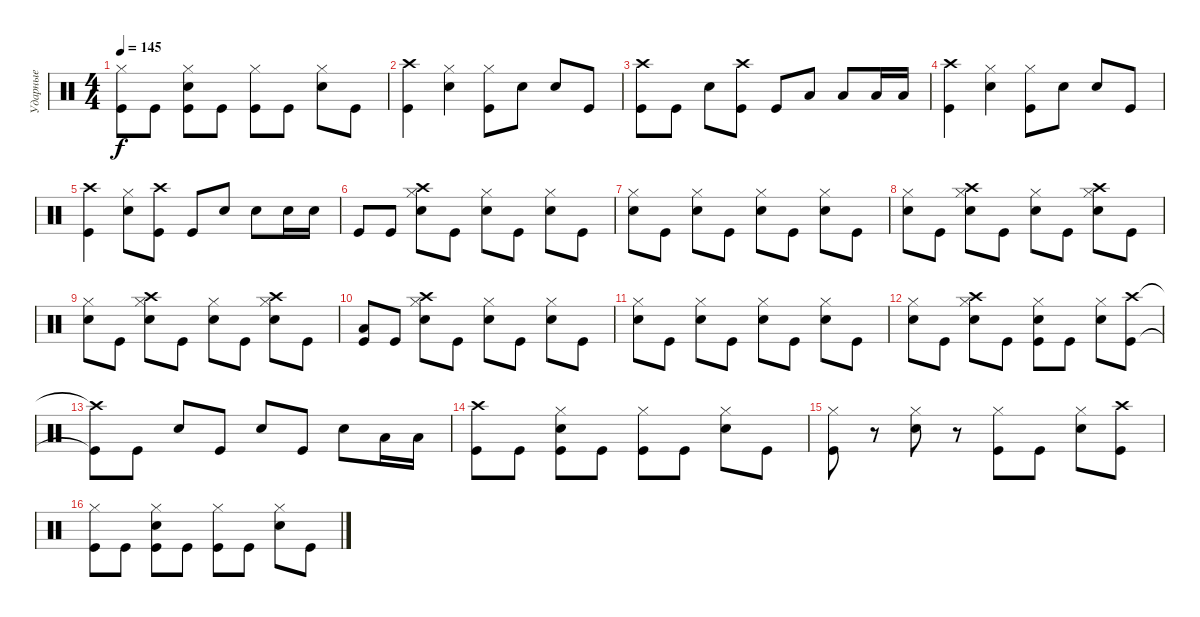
\track ("Ударные" "Ударные") {instrument percussion}
\staff {score}
\articulation defaults
\ts (4 4)
\tempo 145
\clef neutral
\ks c
("Hi-Hat (closed)" "Kick (hit)").8{dy f} "Kick (hit)".8 ("Hi-Hat (closed)" "Electric Snare (hit)" "Kick (hit)").8 "Kick (hit)".8 ("Hi-Hat (closed)" "Kick (hit)").8 "Kick (hit)".8 ("Hi-Hat (closed)" "Electric Snare (hit)").8 "Kick (hit)".8 |
("Crash high (hit)" "Kick (hit)").4 ("Hi-Hat (closed)" "Electric Snare (hit)").4 ("Hi-Hat (closed)" "Kick (hit)").8 "Electric Snare (hit)".8 "Electric Snare (hit)".8 "Kick (hit)".8 |
("Crash high (hit)" "Kick (hit)").8 "Kick (hit)".8 "Electric Snare (hit)".8 ("Crash high (hit)" "Kick (hit)").8 "Kick (hit)".8 "Low Tom (hit)".8 "Low Tom (hit)".8 "Low Tom (hit)".16 "Low Tom (hit)".16 |
("Crash high (hit)" "Kick (hit)").4 ("Hi-Hat (closed)" "Electric Snare (hit)").4 ("Hi-Hat (closed)" "Kick (hit)").8 "Electric Snare (hit)".8 "Electric Snare (hit)".8 "Kick (hit)".8 |
("Crash high (hit)" "Kick (hit)").4 ("Hi-Hat (closed)" "Electric Snare (hit)").8 ("Crash high (hit)" "Kick (hit)").8 "Kick (hit)".8 "Electric Snare (hit)".8 "Electric Snare (hit)".8 "Electric Snare (hit)".16 "Electric Snare (hit)".16 |
"Kick (hit)".8 "Kick (hit)".8 ("Crash high (hit)" "Hi-Hat (closed)" "Electric Snare (hit)").8 "Kick (hit)".8 ("Hi-Hat (closed)" "Electric Snare (hit)").8 "Kick (hit)".8 ("Hi-Hat (closed)" "Electric Snare (hit)").8 "Kick (hit)".8 |
("Hi-Hat (closed)" "Electric Snare (hit)").8 "Kick (hit)".8 ("Hi-Hat (closed)" "Electric Snare (hit)").8 "Kick (hit)".8 ("Hi-Hat (closed)" "Electric Snare (hit)").8 "Kick (hit)".8 ("Hi-Hat (closed)" "Electric Snare (hit)").8 "Kick (hit)".8 |
("Hi-Hat (closed)" "Electric Snare (hit)").8 "Kick (hit)".8 ("Crash high (hit)" "Hi-Hat (closed)" "Electric Snare (hit)").8 "Kick (hit)".8 ("Hi-Hat (closed)" "Electric Snare (hit)").8 "Kick (hit)".8 ("Crash high (hit)" "Hi-Hat (closed)" "Electric Snare (hit)").8 "Kick (hit)".8 |
("Hi-Hat (closed)" "Electric Snare (hit)").8 "Kick (hit)".8 ("Crash high (hit)" "Hi-Hat (closed)" "Electric Snare (hit)").8 "Kick (hit)".8 ("Hi-Hat (closed)" "Electric Snare (hit)").8 "Kick (hit)".8 ("Crash high (hit)" "Hi-Hat (closed)" "Electric Snare (hit)").8 "Kick (hit)".8 |
("Low Tom (hit)" "Kick (hit)").8 "Kick (hit)".8 ("Crash high (hit)" "Hi-Hat (closed)" "Electric Snare (hit)").8 "Kick (hit)".8 ("Hi-Hat (closed)" "Electric Snare (hit)").8 "Kick (hit)".8 ("Hi-Hat (closed)" "Electric Snare (hit)").8 "Kick (hit)".8 |
("Hi-Hat (closed)" "Electric Snare (hit)").8 "Kick (hit)".8 ("Hi-Hat (closed)" "Electric Snare (hit)").8 "Kick (hit)".8 ("Hi-Hat (closed)" "Electric Snare (hit)").8 "Kick (hit)".8 ("Hi-Hat (closed)" "Electric Snare (hit)").8 "Kick (hit)".8 |
("Hi-Hat (closed)" "Electric Snare (hit)").8 "Kick (hit)".8 ("Crash high (hit)" "Hi-Hat (closed)" "Electric Snare (hit)").8 "Kick (hit)".8 ("Hi-Hat (closed)" "Electric Snare (hit)" "Kick (hit)").8 "Kick (hit)".8 ("Hi-Hat (closed)" "Electric Snare (hit)").8 ("Crash high (hit)" "Kick (hit)").8 |
("Crash high (hit)"{t} "Kick (hit)"{t}).8 "Kick (hit)".8 "Electric Snare (hit)".8 "Kick (hit)".8 "Electric Snare (hit)".8 "Kick (hit)".8 "Electric Snare (hit)".8 "Low Tom (hit)".16 "Low Tom (hit)".16 |
("Crash high (hit)" "Kick (hit)").8 "Kick (hit)".8 ("Hi-Hat (closed)" "Electric Snare (hit)" "Kick (hit)").8 "Kick (hit)".8 ("Hi-Hat (closed)" "Kick (hit)").8 "Kick (hit)".8 ("Hi-Hat (closed)" "Electric Snare (hit)").8 "Kick (hit)".8 |
("Hi-Hat (closed)" "Kick (hit)").8 r.8 ("Hi-Hat (closed)" "Electric Snare (hit)").8 r.8 ("Hi-Hat (closed)" "Kick (hit)").8 "Kick (hit)".8 ("Hi-Hat (closed)" "Electric Snare (hit)").8 ("Crash high (hit)" "Kick (hit)").8 |
("Hi-Hat (closed)" "Kick (hit)").8 "Kick (hit)".8 ("Hi-Hat (closed)" "Electric Snare (hit)" "Kick (hit)").8 "Kick (hit)".8 ("Hi-Hat (closed)" "Kick (hit)").8 "Kick (hit)".8 ("Hi-Hat (closed)" "Electric Snare (hit)").8 "Kick (hit)".8
